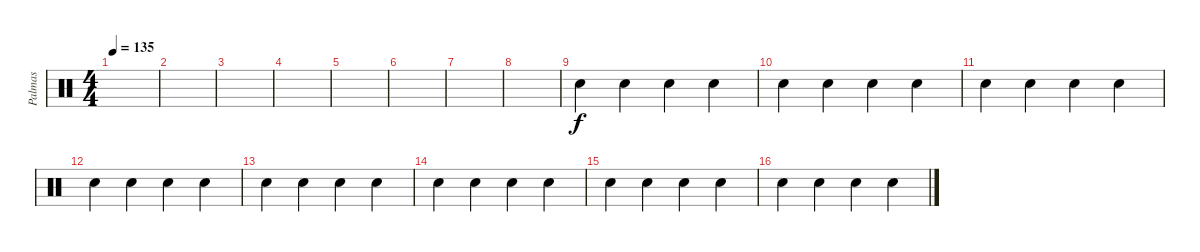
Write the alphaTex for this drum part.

\track ("Palmas" "Palmas") {instrument percussion}
\staff {score}
\articulation defaults
\ts (4 4)
\tempo 135
\clef neutral
\ks c
|
|
|
|
|
|
|
|
"Hand Clap (hit)".4 "Hand Clap (hit)".4 "Hand Clap (hit)".4 "Hand Clap (hit)".4 |
"Hand Clap (hit)".4 "Hand Clap (hit)".4 "Hand Clap (hit)".4 "Hand Clap (hit)".4 |
"Hand Clap (hit)".4 "Hand Clap (hit)".4 "Hand Clap (hit)".4 "Hand Clap (hit)".4 |
"Hand Clap (hit)".4 "Hand Clap (hit)".4 "Hand Clap (hit)".4 "Hand Clap (hit)".4 |
"Hand Clap (hit)".4 "Hand Clap (hit)".4 "Hand Clap (hit)".4 "Hand Clap (hit)".4 |
"Hand Clap (hit)".4 "Hand Clap (hit)".4 "Hand Clap (hit)".4 "Hand Clap (hit)".4 |
"Hand Clap (hit)".4 "Hand Clap (hit)".4 "Hand Clap (hit)".4 "Hand Clap (hit)".4 |
"Hand Clap (hit)".4 "Hand Clap (hit)".4 "Hand Clap (hit)".4 "Hand Clap (hit)".4
